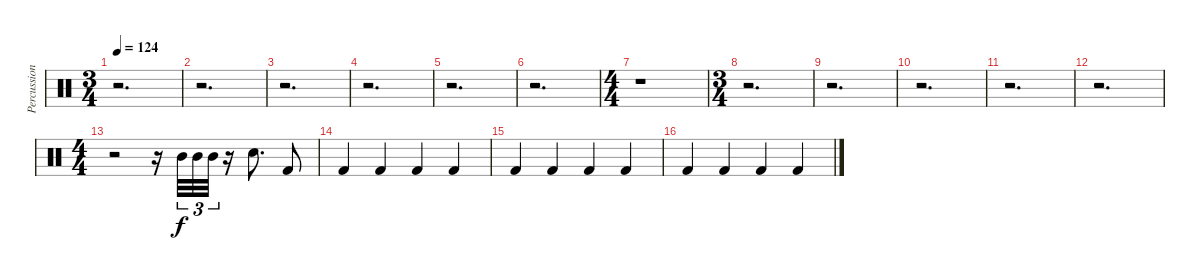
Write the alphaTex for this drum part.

\track ("Percussion" "Percussion") {instrument percussion}
\staff {score}
\articulation defaults
\ts (3 4)
\tempo 124
\clef neutral
\ks c
r.2{d dy f} |
r.2{d} |
r.2{d} |
r.2{d} |
r.2{d} |
r.2{d} |
\ts (4 4)
r.1 |
\ts (3 4)
r.2{d} |
r.2{d} |
r.2{d} |
r.2{d} |
r.2{d} |
\ts (4 4)
r.2 r.16 "Mid Tom (hit)".32{tu (3 2)} "Mid Tom (hit)".32{tu (3 2)} "Mid Tom (hit)".32{tu (3 2)} r.16 "Snare (hit) 2".8{d} "Kick (hit) 2".8 |
"Kick (hit) 2".4 "Kick (hit) 2".4 "Kick (hit) 2".4 "Kick (hit) 2".4 |
"Kick (hit) 2".4 "Kick (hit) 2".4 "Kick (hit) 2".4 "Kick (hit) 2".4 |
"Kick (hit) 2".4 "Kick (hit) 2".4 "Kick (hit) 2".4 "Kick (hit) 2".4
